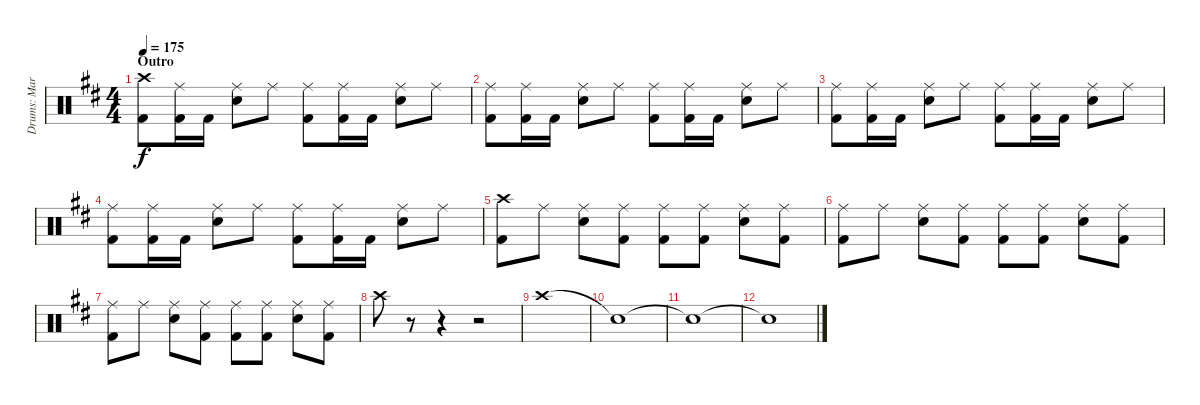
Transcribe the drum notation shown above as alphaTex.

\track ("Drums: Martin Herzinger" "Drums: Mar") {instrument percussion}
\staff {score}
\articulation defaults
\ts (4 4)
\section ("" "Outro")
\tempo 175
\clef neutral
\ks d
("Crash high (hit)" "Kick (hit) 2").8{dy f} ("Ride (middle)" "Kick (hit) 2").16 "Kick (hit) 2".16 ("Ride (middle)" "Snare (hit) 2").8 "Ride (middle)".8 ("Ride (middle)" "Kick (hit) 2").8 ("Ride (middle)" "Kick (hit) 2").16 "Kick (hit) 2".16 ("Ride (middle)" "Snare (hit) 2").8 "Ride (middle)".8 |
("Ride (middle)" "Kick (hit) 2").8 ("Ride (middle)" "Kick (hit) 2").16 "Kick (hit) 2".16 ("Ride (middle)" "Snare (hit) 2").8 "Ride (middle)".8 ("Ride (middle)" "Kick (hit) 2").8 ("Ride (middle)" "Kick (hit) 2").16 "Kick (hit) 2".16 ("Ride (middle)" "Snare (hit) 2").8 "Ride (middle)".8 |
("Ride (middle)" "Kick (hit) 2").8 ("Ride (middle)" "Kick (hit) 2").16 "Kick (hit) 2".16 ("Ride (middle)" "Snare (hit) 2").8 "Ride (middle)".8 ("Ride (middle)" "Kick (hit) 2").8 ("Ride (middle)" "Kick (hit) 2").16 "Kick (hit) 2".16 ("Ride (middle)" "Snare (hit) 2").8 "Ride (middle)".8 |
("Ride (middle)" "Kick (hit) 2").8 ("Ride (middle)" "Kick (hit) 2").16 "Kick (hit) 2".16 ("Ride (middle)" "Snare (hit) 2").8 "Ride (middle)".8 ("Ride (middle)" "Kick (hit) 2").8 ("Ride (middle)" "Kick (hit) 2").16 "Kick (hit) 2".16 ("Ride (middle)" "Snare (hit) 2").8 "Ride (middle)".8 |
("Crash high (hit)" "Kick (hit) 2").8 "Ride (middle)".8 ("Ride (middle)" "Snare (hit) 2").8 ("Ride (middle)" "Kick (hit) 2").8 ("Ride (middle)" "Kick (hit) 2").8 ("Ride (middle)" "Kick (hit) 2").8 ("Ride (middle)" "Snare (hit) 2").8 ("Ride (middle)" "Kick (hit) 2").8 |
("Ride (middle)" "Kick (hit) 2").8 "Ride (middle)".8 ("Ride (middle)" "Snare (hit) 2").8 ("Ride (middle)" "Kick (hit) 2").8 ("Ride (middle)" "Kick (hit) 2").8 ("Ride (middle)" "Kick (hit) 2").8 ("Ride (middle)" "Snare (hit) 2").8 ("Ride (middle)" "Kick (hit) 2").8 |
("Ride (middle)" "Kick (hit) 2").8 "Ride (middle)".8 ("Ride (middle)" "Snare (hit) 2").8 ("Ride (middle)" "Kick (hit) 2").8 ("Ride (middle)" "Kick (hit) 2").8 ("Ride (middle)" "Kick (hit) 2").8 ("Ride (middle)" "Snare (hit) 2").8 ("Ride (middle)" "Kick (hit) 2").8 |
"Crash high (hit)".8 r.8 r.4 r.2 |
"Crash high (hit)".1 |
"Snare (hit)"{t}.1 |
"Snare (hit)"{t}.1 |
"Snare (hit)"{t}.1
